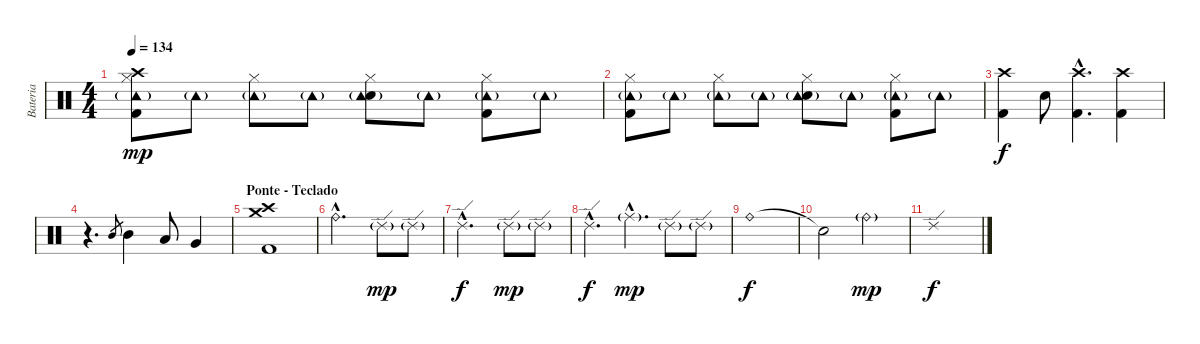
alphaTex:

\track ("Bateria" "Bateria") {instrument percussion}
\staff {score}
\articulation defaults
\ts (4 4)
\tempo 134
\clef neutral
\ks c
("Hi-Hat (closed)" "Kick (hit) 2" "Tambourine (hit)"{g} "Crash high (hit)").8{dy mp} "Tambourine (hit)"{g}.8 ("Hi-Hat (closed)" "Tambourine (hit)"{g}).8 "Tambourine (hit)"{g}.8 ("Hi-Hat (closed)" "Electric Snare (hit)" "Tambourine (hit)"{g}).8 "Tambourine (hit)"{g}.8 ("Hi-Hat (closed)" "Kick (hit) 2" "Tambourine (hit)"{g}).8 "Tambourine (hit)"{g}.8 |
("Hi-Hat (closed)" "Kick (hit) 2" "Tambourine (hit)"{g}).8 "Tambourine (hit)"{g}.8 ("Hi-Hat (closed)" "Tambourine (hit)"{g}).8 "Tambourine (hit)"{g}.8 ("Hi-Hat (closed)" "Electric Snare (hit)" "Tambourine (hit)"{g}).8 "Tambourine (hit)"{g}.8 ("Hi-Hat (closed)" "Kick (hit) 2" "Tambourine (hit)"{g}).8 "Tambourine (hit)"{g}.8 |
("Kick (hit) 2" "Crash high (hit)").4{dy f} "Electric Snare (hit)".8 ("Kick (hit) 2"{hac} "Crash high (hit)"{hac}).4{d} ("Kick (hit) 2" "Crash high (hit)").4 |
r.4{d} "Mid Tom (hit)".8{gr} "Mid Tom (hit)".4 "Low Tom (hit)".8 "Very Low Tom (hit)".4 |
\section ("" "Ponte - Teclado")
("Kick (hit) 2" "Crash medium (hit)" "Crash high (hit)").1 |
"Ride (bell)"{hac}.2{d} "Ride (edge) 2"{g}.8{dy mp} "Ride (edge) 2"{g}.8 |
"Ride (edge) 2"{hac}.2{d dy f} "Ride (edge) 2"{g}.8{dy mp} "Ride (edge) 2"{g}.8 |
"Ride (edge) 2"{hac}.4{d dy f} "Ride (middle)"{g hac}.4{d dy mp} "Ride (edge) 2"{g}.8 "Ride (edge) 2"{g}.8 |
"Ride (bell)".1{dy f} |
"Snare (hit)"{t}.2 "Ride (bell)"{g}.2{dy mp} |
"Ride (edge) 2".1{dy f}
